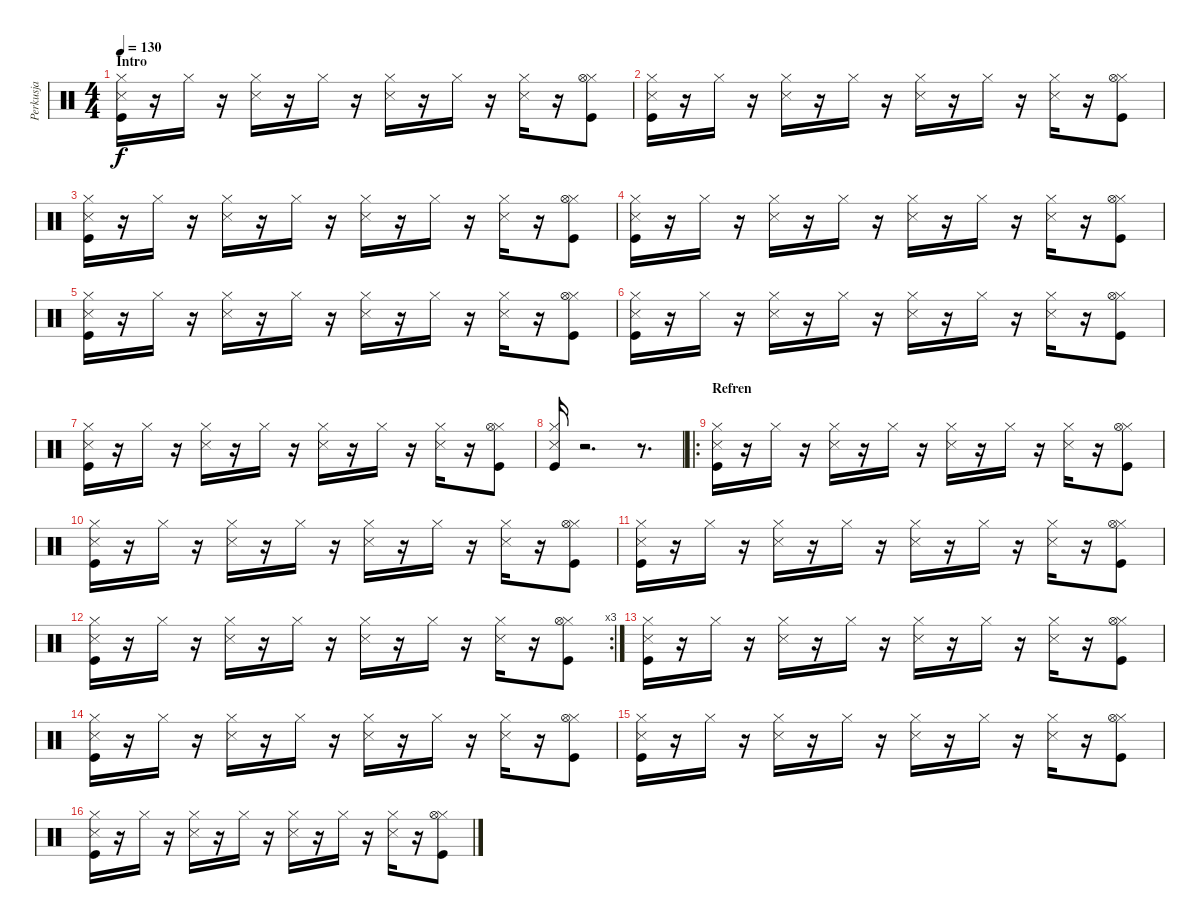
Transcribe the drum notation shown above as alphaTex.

\track ("Perkusja" "Perkusja") {instrument percussion}
\staff {score}
\articulation defaults
\ts (4 4)
\section ("" "Intro")
\tempo 130
\clef neutral
\ks c
("Snare (side stick) 3" "Hi-Hat (closed)" "Kick (hit)").16{dy f} r.16 "Hi-Hat (closed)".16 r.16 ("Snare (side stick) 3" "Hi-Hat (closed)").16 r.16 "Hi-Hat (closed)".16 r.16 ("Snare (side stick) 3" "Hi-Hat (closed)").16 r.16 "Hi-Hat (closed)".16 r.16 ("Snare (side stick) 3" "Hi-Hat (closed)").16 r.16 ("Hi-Hat (closed)" "Hi-Hat (open)" "Kick (hit)").8 |
("Snare (side stick) 3" "Hi-Hat (closed)" "Kick (hit)").16 r.16 "Hi-Hat (closed)".16 r.16 ("Snare (side stick) 3" "Hi-Hat (closed)").16 r.16 "Hi-Hat (closed)".16 r.16 ("Snare (side stick) 3" "Hi-Hat (closed)").16 r.16 "Hi-Hat (closed)".16 r.16 ("Snare (side stick) 3" "Hi-Hat (closed)").16 r.16 ("Hi-Hat (closed)" "Hi-Hat (open)" "Kick (hit)").8 |
("Snare (side stick) 3" "Hi-Hat (closed)" "Kick (hit)").16 r.16 "Hi-Hat (closed)".16 r.16 ("Snare (side stick) 3" "Hi-Hat (closed)").16 r.16 "Hi-Hat (closed)".16 r.16 ("Snare (side stick) 3" "Hi-Hat (closed)").16 r.16 "Hi-Hat (closed)".16 r.16 ("Snare (side stick) 3" "Hi-Hat (closed)").16 r.16 ("Hi-Hat (closed)" "Hi-Hat (open)" "Kick (hit)").8 |
("Snare (side stick) 3" "Hi-Hat (closed)" "Kick (hit)").16 r.16 "Hi-Hat (closed)".16 r.16 ("Snare (side stick) 3" "Hi-Hat (closed)").16 r.16 "Hi-Hat (closed)".16 r.16 ("Snare (side stick) 3" "Hi-Hat (closed)").16 r.16 "Hi-Hat (closed)".16 r.16 ("Snare (side stick) 3" "Hi-Hat (closed)").16 r.16 ("Hi-Hat (closed)" "Hi-Hat (open)" "Kick (hit)").8 |
("Snare (side stick) 3" "Hi-Hat (closed)" "Kick (hit)").16 r.16 "Hi-Hat (closed)".16 r.16 ("Snare (side stick) 3" "Hi-Hat (closed)").16 r.16 "Hi-Hat (closed)".16 r.16 ("Snare (side stick) 3" "Hi-Hat (closed)").16 r.16 "Hi-Hat (closed)".16 r.16 ("Snare (side stick) 3" "Hi-Hat (closed)").16 r.16 ("Hi-Hat (closed)" "Hi-Hat (open)" "Kick (hit)").8 |
("Snare (side stick) 3" "Hi-Hat (closed)" "Kick (hit)").16 r.16 "Hi-Hat (closed)".16 r.16 ("Snare (side stick) 3" "Hi-Hat (closed)").16 r.16 "Hi-Hat (closed)".16 r.16 ("Snare (side stick) 3" "Hi-Hat (closed)").16 r.16 "Hi-Hat (closed)".16 r.16 ("Snare (side stick) 3" "Hi-Hat (closed)").16 r.16 ("Hi-Hat (closed)" "Hi-Hat (open)" "Kick (hit)").8 |
("Snare (side stick) 3" "Hi-Hat (closed)" "Kick (hit)").16 r.16 "Hi-Hat (closed)".16 r.16 ("Snare (side stick) 3" "Hi-Hat (closed)").16 r.16 "Hi-Hat (closed)".16 r.16 ("Snare (side stick) 3" "Hi-Hat (closed)").16 r.16 "Hi-Hat (closed)".16 r.16 ("Snare (side stick) 3" "Hi-Hat (closed)").16 r.16 ("Hi-Hat (closed)" "Hi-Hat (open)" "Kick (hit)").8 |
("Snare (side stick) 3" "Hi-Hat (closed)" "Kick (hit)").16 r.2{d} r.8{d} |
\ro
\section ("" "Refren")
("Snare (side stick) 3" "Hi-Hat (closed)" "Kick (hit)").16 r.16 "Hi-Hat (closed)".16 r.16 ("Snare (side stick) 3" "Hi-Hat (closed)").16 r.16 "Hi-Hat (closed)".16 r.16 ("Snare (side stick) 3" "Hi-Hat (closed)").16 r.16 "Hi-Hat (closed)".16 r.16 ("Snare (side stick) 3" "Hi-Hat (closed)").16 r.16 ("Hi-Hat (closed)" "Hi-Hat (open)" "Kick (hit)").8 |
("Snare (side stick) 3" "Hi-Hat (closed)" "Kick (hit)").16 r.16 "Hi-Hat (closed)".16 r.16 ("Snare (side stick) 3" "Hi-Hat (closed)").16 r.16 "Hi-Hat (closed)".16 r.16 ("Snare (side stick) 3" "Hi-Hat (closed)").16 r.16 "Hi-Hat (closed)".16 r.16 ("Snare (side stick) 3" "Hi-Hat (closed)").16 r.16 ("Hi-Hat (closed)" "Hi-Hat (open)" "Kick (hit)").8 |
("Snare (side stick) 3" "Hi-Hat (closed)" "Kick (hit)").16 r.16 "Hi-Hat (closed)".16 r.16 ("Snare (side stick) 3" "Hi-Hat (closed)").16 r.16 "Hi-Hat (closed)".16 r.16 ("Snare (side stick) 3" "Hi-Hat (closed)").16 r.16 "Hi-Hat (closed)".16 r.16 ("Snare (side stick) 3" "Hi-Hat (closed)").16 r.16 ("Hi-Hat (closed)" "Hi-Hat (open)" "Kick (hit)").8 |
\rc 3
("Snare (side stick) 3" "Hi-Hat (closed)" "Kick (hit)").16 r.16 "Hi-Hat (closed)".16 r.16 ("Snare (side stick) 3" "Hi-Hat (closed)").16 r.16 "Hi-Hat (closed)".16 r.16 ("Snare (side stick) 3" "Hi-Hat (closed)").16 r.16 "Hi-Hat (closed)".16 r.16 ("Snare (side stick) 3" "Hi-Hat (closed)").16 r.16 ("Hi-Hat (closed)" "Hi-Hat (open)" "Kick (hit)").8 |
("Snare (side stick) 3" "Hi-Hat (closed)" "Kick (hit)").16 r.16 "Hi-Hat (closed)".16 r.16 ("Snare (side stick) 3" "Hi-Hat (closed)").16 r.16 "Hi-Hat (closed)".16 r.16 ("Snare (side stick) 3" "Hi-Hat (closed)").16 r.16 "Hi-Hat (closed)".16 r.16 ("Snare (side stick) 3" "Hi-Hat (closed)").16 r.16 ("Hi-Hat (closed)" "Hi-Hat (open)" "Kick (hit)").8 |
("Snare (side stick) 3" "Hi-Hat (closed)" "Kick (hit)").16 r.16 "Hi-Hat (closed)".16 r.16 ("Snare (side stick) 3" "Hi-Hat (closed)").16 r.16 "Hi-Hat (closed)".16 r.16 ("Snare (side stick) 3" "Hi-Hat (closed)").16 r.16 "Hi-Hat (closed)".16 r.16 ("Snare (side stick) 3" "Hi-Hat (closed)").16 r.16 ("Hi-Hat (closed)" "Hi-Hat (open)" "Kick (hit)").8 |
("Snare (side stick) 3" "Hi-Hat (closed)" "Kick (hit)").16 r.16 "Hi-Hat (closed)".16 r.16 ("Snare (side stick) 3" "Hi-Hat (closed)").16 r.16 "Hi-Hat (closed)".16 r.16 ("Snare (side stick) 3" "Hi-Hat (closed)").16 r.16 "Hi-Hat (closed)".16 r.16 ("Snare (side stick) 3" "Hi-Hat (closed)").16 r.16 ("Hi-Hat (closed)" "Hi-Hat (open)" "Kick (hit)").8 |
("Snare (side stick) 3" "Hi-Hat (closed)" "Kick (hit)").16 r.16 "Hi-Hat (closed)".16 r.16 ("Snare (side stick) 3" "Hi-Hat (closed)").16 r.16 "Hi-Hat (closed)".16 r.16 ("Snare (side stick) 3" "Hi-Hat (closed)").16 r.16 "Hi-Hat (closed)".16 r.16 ("Snare (side stick) 3" "Hi-Hat (closed)").16 r.16 ("Hi-Hat (closed)" "Hi-Hat (open)" "Kick (hit)").8
